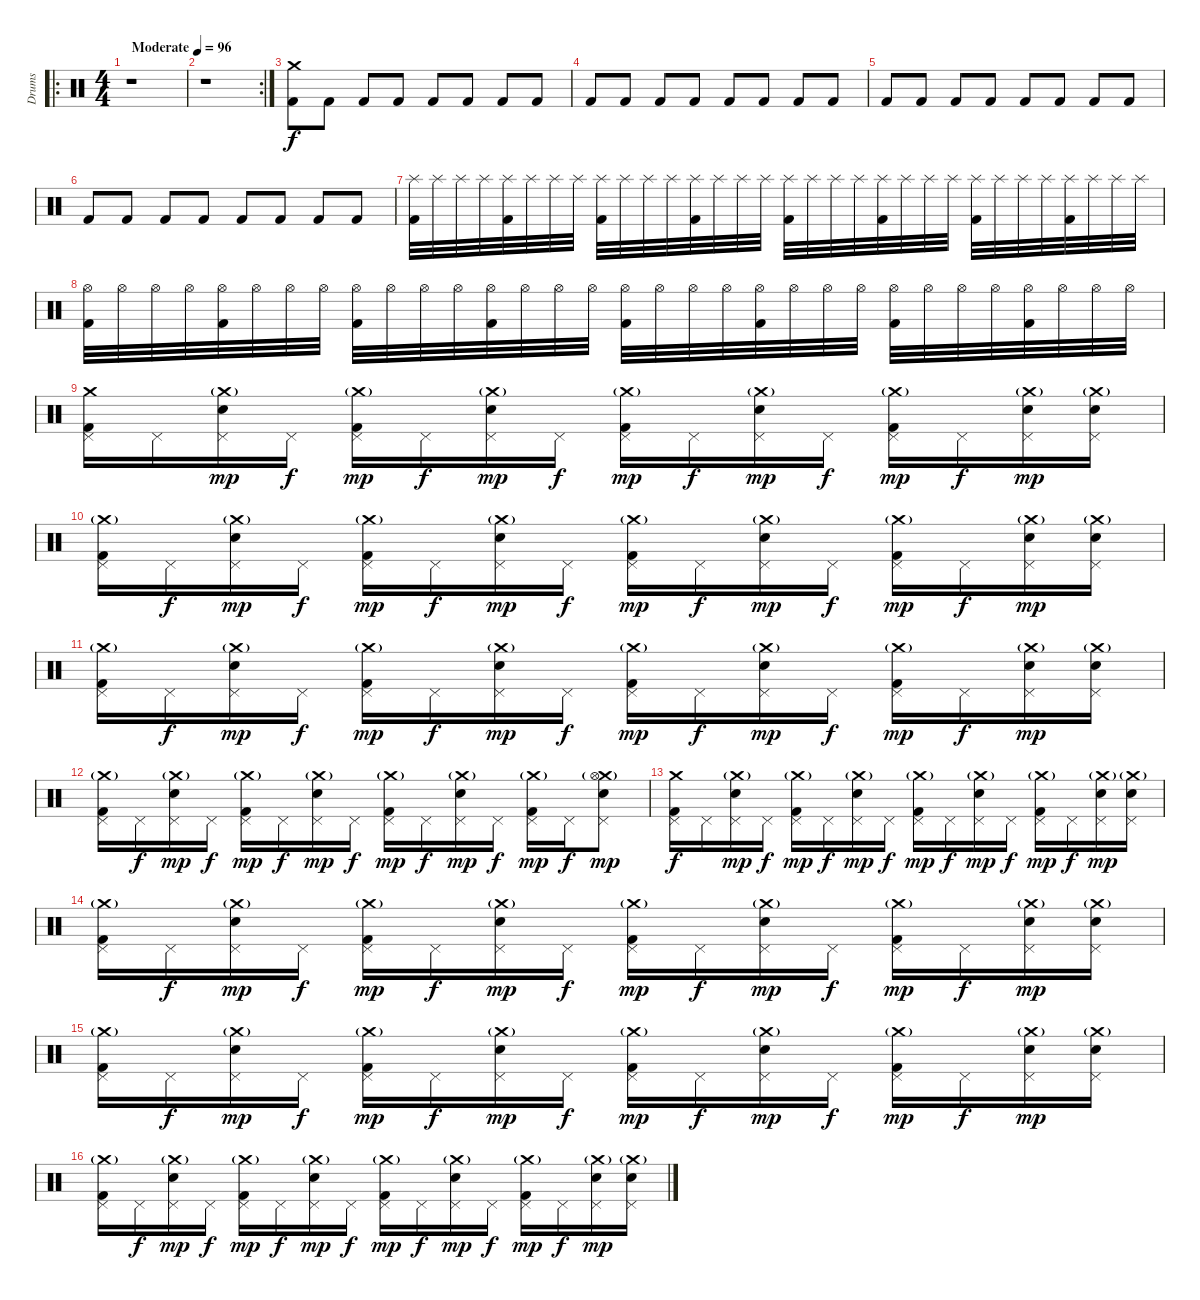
\track ("Drums" "Drums") {instrument percussion}
\staff
\articulation defaults
\ro
\ts (4 4)
\tempo (96 "Moderate")
\clef neutral
\ks c
r.1{dy f} |
\rc 2
r.1 |
("Crash medium (hit)" "Kick (hit) 2").8 "Kick (hit) 2".8 "Kick (hit) 2".8 "Kick (hit) 2".8 "Kick (hit) 2".8 "Kick (hit) 2".8 "Kick (hit) 2".8 "Kick (hit) 2".8 |
"Kick (hit) 2".8 "Kick (hit) 2".8 "Kick (hit) 2".8 "Kick (hit) 2".8 "Kick (hit) 2".8 "Kick (hit) 2".8 "Kick (hit) 2".8 "Kick (hit) 2".8 |
"Kick (hit) 2".8 "Kick (hit) 2".8 "Kick (hit) 2".8 "Kick (hit) 2".8 "Kick (hit) 2".8 "Kick (hit) 2".8 "Kick (hit) 2".8 "Kick (hit) 2".8 |
"Kick (hit) 2".8 "Kick (hit) 2".8 "Kick (hit) 2".8 "Kick (hit) 2".8 "Kick (hit) 2".8 "Kick (hit) 2".8 "Kick (hit) 2".8 "Kick (hit) 2".8 |
("Splash (hit)" "Kick (hit) 2").32 "Splash (hit)".32 "Splash (hit)".32 "Splash (hit)".32 ("Splash (hit)" "Kick (hit) 2").32 "Splash (hit)".32 "Splash (hit)".32 "Splash (hit)".32 ("Splash (hit)" "Kick (hit) 2").32 "Splash (hit)".32 "Splash (hit)".32 "Splash (hit)".32 ("Splash (hit)" "Kick (hit) 2").32 "Splash (hit)".32 "Splash (hit)".32 "Splash (hit)".32 ("Splash (hit)" "Kick (hit) 2").32 "Splash (hit)".32 "Splash (hit)".32 "Splash (hit)".32 ("Splash (hit)" "Kick (hit) 2").32 "Splash (hit)".32 "Splash (hit)".32 "Splash (hit)".32 ("Splash (hit)" "Kick (hit) 2").32 "Splash (hit)".32 "Splash (hit)".32 "Splash (hit)".32 ("Splash (hit)" "Kick (hit) 2").32 "Splash (hit)".32 "Splash (hit)".32 "Splash (hit)".32 |
("Hi-Hat (open)" "Kick (hit) 2").32 "Hi-Hat (open)".32 "Hi-Hat (open)".32 "Hi-Hat (open)".32 ("Hi-Hat (open)" "Kick (hit) 2").32 "Hi-Hat (open)".32 "Hi-Hat (open)".32 "Hi-Hat (open)".32 ("Hi-Hat (open)" "Kick (hit) 2").32 "Hi-Hat (open)".32 "Hi-Hat (open)".32 "Hi-Hat (open)".32 ("Hi-Hat (open)" "Kick (hit) 2").32 "Hi-Hat (open)".32 "Hi-Hat (open)".32 "Hi-Hat (open)".32 ("Hi-Hat (open)" "Kick (hit) 2").32 "Hi-Hat (open)".32 "Hi-Hat (open)".32 "Hi-Hat (open)".32 ("Hi-Hat (open)" "Kick (hit) 2").32 "Hi-Hat (open)".32 "Hi-Hat (open)".32 "Hi-Hat (open)".32 ("Hi-Hat (open)" "Kick (hit) 2").32 "Hi-Hat (open)".32 "Hi-Hat (open)".32 "Hi-Hat (open)".32 ("Hi-Hat (open)" "Kick (hit) 2").32 "Hi-Hat (open)".32 "Hi-Hat (open)".32 "Hi-Hat (open)".32 |
("Crash medium (hit)" "Pedal Hi-Hat (hit)" "Kick (hit) 2").16 "Pedal Hi-Hat (hit)".16 ("Crash medium (hit)"{g} "Pedal Hi-Hat (hit)" "Snare (hit) 2").16{dy mp} "Pedal Hi-Hat (hit)".16{dy f} ("Crash medium (hit)"{g} "Pedal Hi-Hat (hit)" "Kick (hit) 2").16{dy mp} "Pedal Hi-Hat (hit)".16{dy f} ("Crash medium (hit)"{g} "Pedal Hi-Hat (hit)" "Snare (hit) 2").16{dy mp} "Pedal Hi-Hat (hit)".16{dy f} ("Crash medium (hit)"{g} "Pedal Hi-Hat (hit)" "Kick (hit) 2").16{dy mp} "Pedal Hi-Hat (hit)".16{dy f} ("Crash medium (hit)"{g} "Pedal Hi-Hat (hit)" "Snare (hit) 2").16{dy mp} "Pedal Hi-Hat (hit)".16{dy f} ("Crash medium (hit)"{g} "Pedal Hi-Hat (hit)" "Kick (hit) 2").16{dy mp} "Pedal Hi-Hat (hit)".16{dy f} ("Crash medium (hit)"{g} "Pedal Hi-Hat (hit)" "Snare (hit) 2").16{dy mp} ("Crash medium (hit)"{g} "Pedal Hi-Hat (hit)" "Snare (hit) 2").16 |
("Crash medium (hit)"{g} "Pedal Hi-Hat (hit)" "Kick (hit) 2").16 "Pedal Hi-Hat (hit)".16{dy f} ("Crash medium (hit)"{g} "Pedal Hi-Hat (hit)" "Snare (hit) 2").16{dy mp} "Pedal Hi-Hat (hit)".16{dy f} ("Crash medium (hit)"{g} "Pedal Hi-Hat (hit)" "Kick (hit) 2").16{dy mp} "Pedal Hi-Hat (hit)".16{dy f} ("Crash medium (hit)"{g} "Pedal Hi-Hat (hit)" "Snare (hit) 2").16{dy mp} "Pedal Hi-Hat (hit)".16{dy f} ("Crash medium (hit)"{g} "Pedal Hi-Hat (hit)" "Kick (hit) 2").16{dy mp} "Pedal Hi-Hat (hit)".16{dy f} ("Crash medium (hit)"{g} "Pedal Hi-Hat (hit)" "Snare (hit) 2").16{dy mp} "Pedal Hi-Hat (hit)".16{dy f} ("Crash medium (hit)"{g} "Pedal Hi-Hat (hit)" "Kick (hit) 2").16{dy mp} "Pedal Hi-Hat (hit)".16{dy f} ("Crash medium (hit)"{g} "Pedal Hi-Hat (hit)" "Snare (hit) 2").16{dy mp} ("Crash medium (hit)"{g} "Pedal Hi-Hat (hit)" "Snare (hit) 2").16 |
("Crash medium (hit)"{g} "Pedal Hi-Hat (hit)" "Kick (hit) 2").16 "Pedal Hi-Hat (hit)".16{dy f} ("Crash medium (hit)"{g} "Pedal Hi-Hat (hit)" "Snare (hit) 2").16{dy mp} "Pedal Hi-Hat (hit)".16{dy f} ("Crash medium (hit)"{g} "Pedal Hi-Hat (hit)" "Kick (hit) 2").16{dy mp} "Pedal Hi-Hat (hit)".16{dy f} ("Crash medium (hit)"{g} "Pedal Hi-Hat (hit)" "Snare (hit) 2").16{dy mp} "Pedal Hi-Hat (hit)".16{dy f} ("Crash medium (hit)"{g} "Pedal Hi-Hat (hit)" "Kick (hit) 2").16{dy mp} "Pedal Hi-Hat (hit)".16{dy f} ("Crash medium (hit)"{g} "Pedal Hi-Hat (hit)" "Snare (hit) 2").16{dy mp} "Pedal Hi-Hat (hit)".16{dy f} ("Crash medium (hit)"{g} "Pedal Hi-Hat (hit)" "Kick (hit) 2").16{dy mp} "Pedal Hi-Hat (hit)".16{dy f} ("Crash medium (hit)"{g} "Pedal Hi-Hat (hit)" "Snare (hit) 2").16{dy mp} ("Crash medium (hit)"{g} "Pedal Hi-Hat (hit)" "Snare (hit) 2").16 |
("Crash medium (hit)"{g} "Pedal Hi-Hat (hit)" "Kick (hit) 2").16 "Pedal Hi-Hat (hit)".16{dy f} ("Crash medium (hit)"{g} "Pedal Hi-Hat (hit)" "Snare (hit) 2").16{dy mp} "Pedal Hi-Hat (hit)".16{dy f} ("Crash medium (hit)"{g} "Pedal Hi-Hat (hit)" "Kick (hit) 2").16{dy mp} "Pedal Hi-Hat (hit)".16{dy f} ("Crash medium (hit)"{g} "Pedal Hi-Hat (hit)" "Snare (hit) 2").16{dy mp} "Pedal Hi-Hat (hit)".16{dy f} ("Crash medium (hit)"{g} "Pedal Hi-Hat (hit)" "Kick (hit) 2").16{dy mp} "Pedal Hi-Hat (hit)".16{dy f} ("Crash medium (hit)"{g} "Pedal Hi-Hat (hit)" "Snare (hit) 2").16{dy mp} "Pedal Hi-Hat (hit)".16{dy f} ("Crash medium (hit)"{g} "Pedal Hi-Hat (hit)" "Kick (hit) 2").16{dy mp} "Pedal Hi-Hat (hit)".16{dy f} ("Crash medium (hit)"{g} "Pedal Hi-Hat (hit)" "Hi-Hat (open)" "Snare (hit) 2").8{dy mp} |
("Crash medium (hit)" "Pedal Hi-Hat (hit)" "Kick (hit) 2").16{dy f} "Pedal Hi-Hat (hit)".16 ("Crash medium (hit)"{g} "Pedal Hi-Hat (hit)" "Snare (hit) 2").16{dy mp} "Pedal Hi-Hat (hit)".16{dy f} ("Crash medium (hit)"{g} "Pedal Hi-Hat (hit)" "Kick (hit) 2").16{dy mp} "Pedal Hi-Hat (hit)".16{dy f} ("Crash medium (hit)"{g} "Pedal Hi-Hat (hit)" "Snare (hit) 2").16{dy mp} "Pedal Hi-Hat (hit)".16{dy f} ("Crash medium (hit)"{g} "Pedal Hi-Hat (hit)" "Kick (hit) 2").16{dy mp} "Pedal Hi-Hat (hit)".16{dy f} ("Crash medium (hit)"{g} "Pedal Hi-Hat (hit)" "Snare (hit) 2").16{dy mp} "Pedal Hi-Hat (hit)".16{dy f} ("Crash medium (hit)"{g} "Pedal Hi-Hat (hit)" "Kick (hit) 2").16{dy mp} "Pedal Hi-Hat (hit)".16{dy f} ("Crash medium (hit)"{g} "Pedal Hi-Hat (hit)" "Snare (hit) 2").16{dy mp} ("Crash medium (hit)"{g} "Pedal Hi-Hat (hit)" "Snare (hit) 2").16 |
("Crash medium (hit)"{g} "Pedal Hi-Hat (hit)" "Kick (hit) 2").16 "Pedal Hi-Hat (hit)".16{dy f} ("Crash medium (hit)"{g} "Pedal Hi-Hat (hit)" "Snare (hit) 2").16{dy mp} "Pedal Hi-Hat (hit)".16{dy f} ("Crash medium (hit)"{g} "Pedal Hi-Hat (hit)" "Kick (hit) 2").16{dy mp} "Pedal Hi-Hat (hit)".16{dy f} ("Crash medium (hit)"{g} "Pedal Hi-Hat (hit)" "Snare (hit) 2").16{dy mp} "Pedal Hi-Hat (hit)".16{dy f} ("Crash medium (hit)"{g} "Pedal Hi-Hat (hit)" "Kick (hit) 2").16{dy mp} "Pedal Hi-Hat (hit)".16{dy f} ("Crash medium (hit)"{g} "Pedal Hi-Hat (hit)" "Snare (hit) 2").16{dy mp} "Pedal Hi-Hat (hit)".16{dy f} ("Crash medium (hit)"{g} "Pedal Hi-Hat (hit)" "Kick (hit) 2").16{dy mp} "Pedal Hi-Hat (hit)".16{dy f} ("Crash medium (hit)"{g} "Pedal Hi-Hat (hit)" "Snare (hit) 2").16{dy mp} ("Crash medium (hit)"{g} "Pedal Hi-Hat (hit)" "Snare (hit) 2").16 |
("Crash medium (hit)"{g} "Pedal Hi-Hat (hit)" "Kick (hit) 2").16 "Pedal Hi-Hat (hit)".16{dy f} ("Crash medium (hit)"{g} "Pedal Hi-Hat (hit)" "Snare (hit) 2").16{dy mp} "Pedal Hi-Hat (hit)".16{dy f} ("Crash medium (hit)"{g} "Pedal Hi-Hat (hit)" "Kick (hit) 2").16{dy mp} "Pedal Hi-Hat (hit)".16{dy f} ("Crash medium (hit)"{g} "Pedal Hi-Hat (hit)" "Snare (hit) 2").16{dy mp} "Pedal Hi-Hat (hit)".16{dy f} ("Crash medium (hit)"{g} "Pedal Hi-Hat (hit)" "Kick (hit) 2").16{dy mp} "Pedal Hi-Hat (hit)".16{dy f} ("Crash medium (hit)"{g} "Pedal Hi-Hat (hit)" "Snare (hit) 2").16{dy mp} "Pedal Hi-Hat (hit)".16{dy f} ("Crash medium (hit)"{g} "Pedal Hi-Hat (hit)" "Kick (hit) 2").16{dy mp} "Pedal Hi-Hat (hit)".16{dy f} ("Crash medium (hit)"{g} "Pedal Hi-Hat (hit)" "Snare (hit) 2").16{dy mp} ("Crash medium (hit)"{g} "Pedal Hi-Hat (hit)" "Snare (hit) 2").16 |
("Crash medium (hit)"{g} "Pedal Hi-Hat (hit)" "Kick (hit) 2").16 "Pedal Hi-Hat (hit)".16{dy f} ("Crash medium (hit)"{g} "Pedal Hi-Hat (hit)" "Snare (hit) 2").16{dy mp} "Pedal Hi-Hat (hit)".16{dy f} ("Crash medium (hit)"{g} "Pedal Hi-Hat (hit)" "Kick (hit) 2").16{dy mp} "Pedal Hi-Hat (hit)".16{dy f} ("Crash medium (hit)"{g} "Pedal Hi-Hat (hit)" "Snare (hit) 2").16{dy mp} "Pedal Hi-Hat (hit)".16{dy f} ("Crash medium (hit)"{g} "Pedal Hi-Hat (hit)" "Kick (hit) 2").16{dy mp} "Pedal Hi-Hat (hit)".16{dy f} ("Crash medium (hit)"{g} "Pedal Hi-Hat (hit)" "Snare (hit) 2").16{dy mp} "Pedal Hi-Hat (hit)".16{dy f} ("Crash medium (hit)"{g} "Pedal Hi-Hat (hit)" "Kick (hit) 2").16{dy mp} "Pedal Hi-Hat (hit)".16{dy f} ("Crash medium (hit)"{g} "Pedal Hi-Hat (hit)" "Snare (hit) 2").16{dy mp} ("Crash medium (hit)"{g} "Pedal Hi-Hat (hit)" "Snare (hit) 2").16
